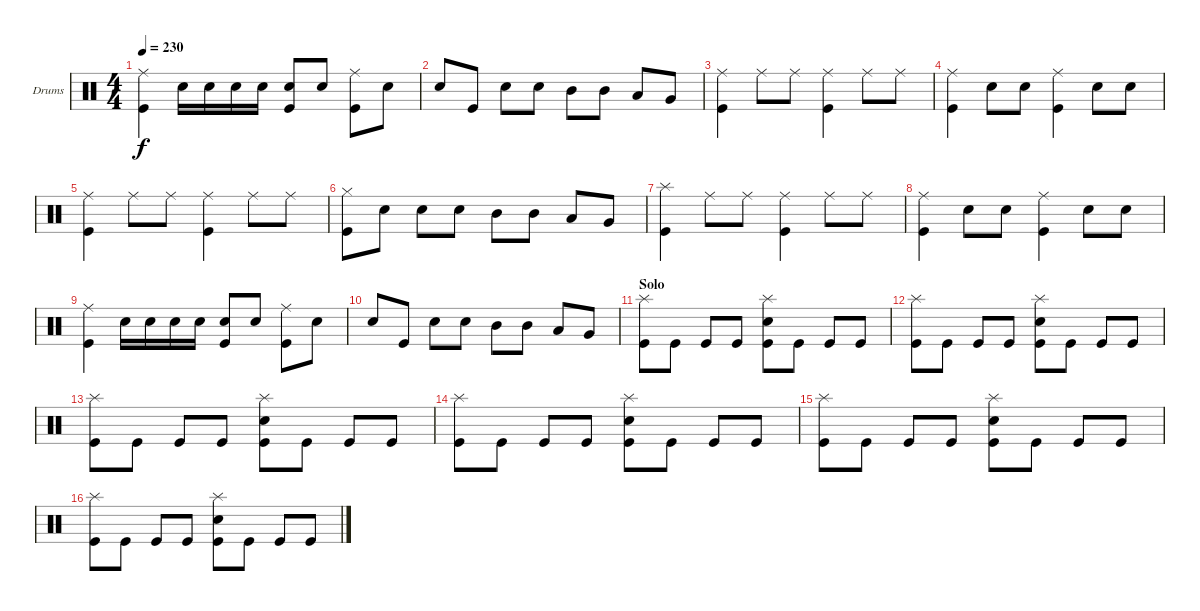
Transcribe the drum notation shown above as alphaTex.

\defaultSystemsLayout 4
\bracketExtendMode groupsimilarinstruments
\firstSystemTrackNameOrientation horizontal
\otherSystemsTrackNameOrientation horizontal
\track ("Drumkit" "Drums") {instrument percussion}
\staff {score}
\articulation defaults
\ts (4 4)
\tempo 230
\clef neutral
\ks c
("Kick (hit)" "Ride (middle)").4{dy f} "Snare (hit) 2".16 "Snare (hit) 2".16 "Snare (hit) 2".16 "Snare (hit) 2".16 ("Kick (hit)" "Snare (hit) 2").8 "Snare (hit) 2".8 ("Kick (hit)" "Ride (middle)").8 "Snare (hit) 2".8 |
"Snare (hit) 2".8 "Kick (hit)".8 "Snare (hit) 2".8 "Snare (hit) 2".8 "Mid Tom (hit)".8 "Mid Tom (hit)".8 "Low Tom (hit)".8 "Very Low Tom (hit)".8 |
("Kick (hit)" "Ride (middle)").4 "Ride (middle)".8 "Ride (middle)".8 ("Kick (hit)" "Ride (middle)").4 "Ride (middle)".8 "Ride (middle)".8 |
("Kick (hit)" "Ride (middle)").4 "Snare (hit) 2".8 "Snare (hit) 2".8 ("Kick (hit)" "Ride (middle)").4 "Snare (hit) 2".8 "Snare (hit) 2".8 |
("Kick (hit)" "Ride (middle)").4 "Ride (middle)".8 "Ride (middle)".8 ("Kick (hit)" "Ride (middle)").4 "Ride (middle)".8 "Ride (middle)".8 |
("Hi-Hat (closed)" "Kick (hit)").8 "Snare (hit) 2".8 "Snare (hit) 2".8 "Snare (hit) 2".8 "Mid Tom (hit)".8 "Mid Tom (hit)".8 "Low Tom (hit)".8 "Very Low Tom (hit)".8 |
("Kick (hit)" "Splash (hit)").4 "Ride (middle)".8 "Ride (middle)".8 ("Kick (hit)" "Ride (middle)").4 "Ride (middle)".8 "Ride (middle)".8 |
("Kick (hit)" "Ride (middle)").4 "Snare (hit) 2".8 "Snare (hit) 2".8 ("Kick (hit)" "Ride (middle)").4 "Snare (hit) 2".8 "Snare (hit) 2".8 |
("Kick (hit)" "Ride (middle)").4 "Snare (hit) 2".16 "Snare (hit) 2".16 "Snare (hit) 2".16 "Snare (hit) 2".16 ("Kick (hit)" "Snare (hit) 2").8 "Snare (hit) 2".8 ("Kick (hit)" "Ride (middle)").8 "Snare (hit) 2".8 |
"Snare (hit) 2".8 "Kick (hit)".8 "Snare (hit) 2".8 "Snare (hit) 2".8 "Mid Tom (hit)".8 "Mid Tom (hit)".8 "Low Tom (hit)".8 "Very Low Tom (hit)".8 |
\section ("" "Solo")
("Kick (hit)" "Splash (hit)").8 "Kick (hit)".8 "Kick (hit)".8 "Kick (hit)".8 ("Kick (hit)" "Splash (hit)" "Snare (hit) 2").8 "Kick (hit)".8 "Kick (hit)".8 "Kick (hit)".8 |
("Kick (hit)" "Splash (hit)").8 "Kick (hit)".8 "Kick (hit)".8 "Kick (hit)".8 ("Kick (hit)" "Splash (hit)" "Snare (hit) 2").8 "Kick (hit)".8 "Kick (hit)".8 "Kick (hit)".8 |
("Kick (hit)" "Splash (hit)").8 "Kick (hit)".8 "Kick (hit)".8 "Kick (hit)".8 ("Kick (hit)" "Splash (hit)" "Snare (hit) 2").8 "Kick (hit)".8 "Kick (hit)".8 "Kick (hit)".8 |
("Kick (hit)" "Splash (hit)").8 "Kick (hit)".8 "Kick (hit)".8 "Kick (hit)".8 ("Kick (hit)" "Splash (hit)" "Snare (hit) 2").8 "Kick (hit)".8 "Kick (hit)".8 "Kick (hit)".8 |
("Kick (hit)" "Splash (hit)").8 "Kick (hit)".8 "Kick (hit)".8 "Kick (hit)".8 ("Kick (hit)" "Splash (hit)" "Snare (hit) 2").8 "Kick (hit)".8 "Kick (hit)".8 "Kick (hit)".8 |
("Kick (hit)" "Splash (hit)").8 "Kick (hit)".8 "Kick (hit)".8 "Kick (hit)".8 ("Kick (hit)" "Splash (hit)" "Snare (hit) 2").8 "Kick (hit)".8 "Kick (hit)".8 "Kick (hit)".8
